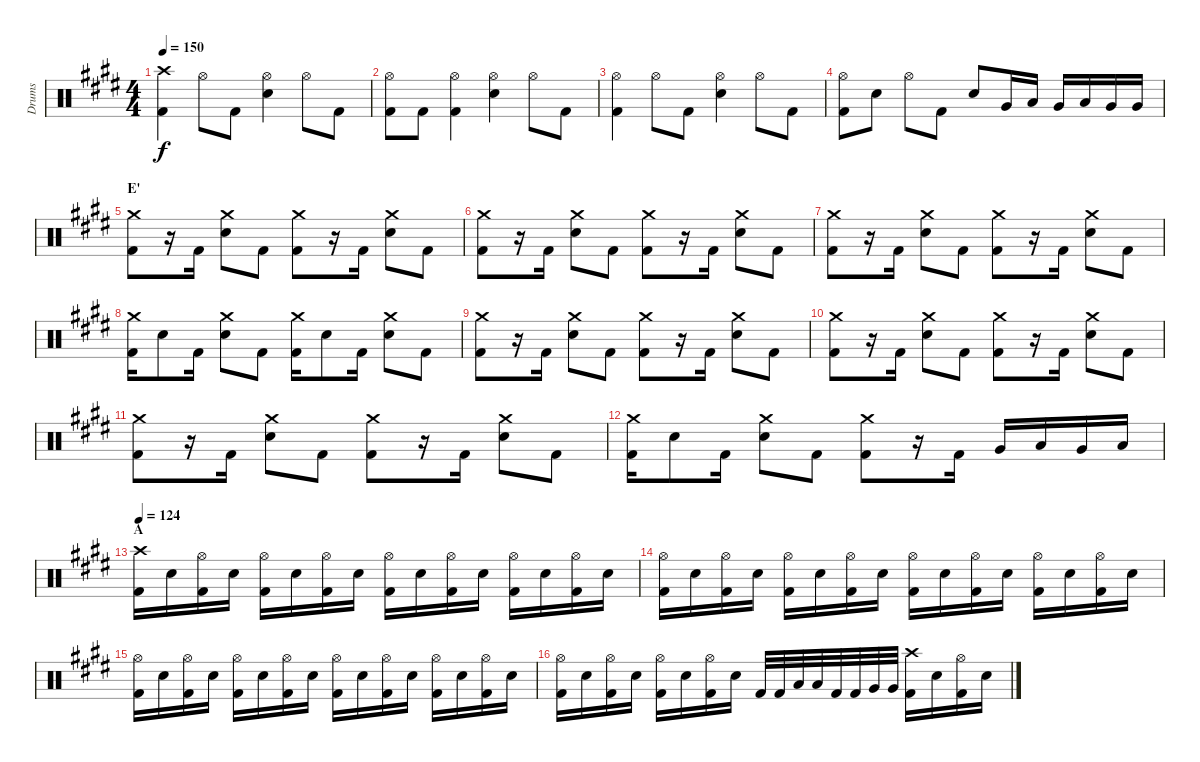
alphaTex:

\track ("Drums" "Drums") {instrument percussion}
\staff {score}
\articulation defaults
\ts (4 4)
\tempo 150
\clef neutral
\ks e
("Crash high (hit)" "Kick (hit) 2").4{dy f} "Hi-Hat (open)".8 "Kick (hit) 2".8 ("Hi-Hat (open)" "Electric Snare (hit)").4 "Hi-Hat (open)".8 "Kick (hit) 2".8 |
("Hi-Hat (open)" "Kick (hit) 2").8 "Kick (hit) 2".8 ("Hi-Hat (open)" "Kick (hit) 2").4 ("Hi-Hat (open)" "Electric Snare (hit)").4 "Hi-Hat (open)".8 "Kick (hit) 2".8 |
("Hi-Hat (open)" "Kick (hit) 2").4 "Hi-Hat (open)".8 "Kick (hit) 2".8 ("Hi-Hat (open)" "Electric Snare (hit)").4 "Hi-Hat (open)".8 "Kick (hit) 2".8 |
("Hi-Hat (open)" "Kick (hit) 2").8 "Electric Snare (hit)".8 "Hi-Hat (open)".8 "Kick (hit) 2".8 "Electric Snare (hit)".8 "Very Low Tom (hit)".16 "Low Tom (hit)".16 "Very Low Tom (hit)".16 "Low Tom (hit)".16 "Very Low Tom (hit)".16 "Very Low Tom (hit)".16 |
\section ("" "E'")
("Crash medium (hit)" "Kick (hit) 2").8 r.16 "Kick (hit) 2".16 ("Crash medium (hit)" "Electric Snare (hit)").8 "Kick (hit) 2".8 ("Crash medium (hit)" "Kick (hit) 2").8 r.16 "Kick (hit) 2".16 ("Crash medium (hit)" "Electric Snare (hit)").8 "Kick (hit) 2".8 |
("Crash medium (hit)" "Kick (hit) 2").8 r.16 "Kick (hit) 2".16 ("Crash medium (hit)" "Electric Snare (hit)").8 "Kick (hit) 2".8 ("Crash medium (hit)" "Kick (hit) 2").8 r.16 "Kick (hit) 2".16 ("Crash medium (hit)" "Electric Snare (hit)").8 "Kick (hit) 2".8 |
("Crash medium (hit)" "Kick (hit) 2").8 r.16 "Kick (hit) 2".16 ("Crash medium (hit)" "Electric Snare (hit)").8 "Kick (hit) 2".8 ("Crash medium (hit)" "Kick (hit) 2").8 r.16 "Kick (hit) 2".16 ("Crash medium (hit)" "Electric Snare (hit)").8 "Kick (hit) 2".8 |
("Crash medium (hit)" "Kick (hit) 2").16 "Electric Snare (hit)".8 "Kick (hit) 2".16 ("Crash medium (hit)" "Electric Snare (hit)").8 "Kick (hit) 2".8 ("Crash medium (hit)" "Kick (hit) 2").16 "Electric Snare (hit)".8 "Kick (hit) 2".16 ("Crash medium (hit)" "Electric Snare (hit)").8 "Kick (hit) 2".8 |
("Crash medium (hit)" "Kick (hit) 2").8 r.16 "Kick (hit) 2".16 ("Crash medium (hit)" "Electric Snare (hit)").8 "Kick (hit) 2".8 ("Crash medium (hit)" "Kick (hit) 2").8 r.16 "Kick (hit) 2".16 ("Crash medium (hit)" "Electric Snare (hit)").8 "Kick (hit) 2".8 |
("Crash medium (hit)" "Kick (hit) 2").8 r.16 "Kick (hit) 2".16 ("Crash medium (hit)" "Electric Snare (hit)").8 "Kick (hit) 2".8 ("Crash medium (hit)" "Kick (hit) 2").8 r.16 "Kick (hit) 2".16 ("Crash medium (hit)" "Electric Snare (hit)").8 "Kick (hit) 2".8 |
("Crash medium (hit)" "Kick (hit) 2").8 r.16 "Kick (hit) 2".16 ("Crash medium (hit)" "Electric Snare (hit)").8 "Kick (hit) 2".8 ("Crash medium (hit)" "Kick (hit) 2").8 r.16 "Kick (hit) 2".16 ("Crash medium (hit)" "Electric Snare (hit)").8 "Kick (hit) 2".8 |
("Crash medium (hit)" "Kick (hit) 2").16 "Electric Snare (hit)".8 "Kick (hit) 2".16 ("Crash medium (hit)" "Electric Snare (hit)").8 "Kick (hit) 2".8 ("Crash medium (hit)" "Kick (hit) 2").8 r.16 "Kick (hit) 2".16 "Very Low Tom (hit)".16 "Low Tom (hit)".16 "Very Low Tom (hit)".16 "Low Tom (hit)".16 |
\section ("" "A")
\tempo 124
("Crash high (hit)" "Kick (hit) 2").16 "Electric Snare (hit)".16 ("Hi-Hat (open)" "Kick (hit) 2").16 "Electric Snare (hit)".16 ("Hi-Hat (open)" "Kick (hit) 2").16 "Electric Snare (hit)".16 ("Hi-Hat (open)" "Kick (hit) 2").16 "Electric Snare (hit)".16 ("Hi-Hat (open)" "Kick (hit) 2").16 "Electric Snare (hit)".16 ("Hi-Hat (open)" "Kick (hit) 2").16 "Electric Snare (hit)".16 ("Hi-Hat (open)" "Kick (hit) 2").16 "Electric Snare (hit)".16 ("Hi-Hat (open)" "Kick (hit) 2").16 "Electric Snare (hit)".16 |
("Hi-Hat (open)" "Kick (hit) 2").16 "Electric Snare (hit)".16 ("Hi-Hat (open)" "Kick (hit) 2").16 "Electric Snare (hit)".16 ("Hi-Hat (open)" "Kick (hit) 2").16 "Electric Snare (hit)".16 ("Hi-Hat (open)" "Kick (hit) 2").16 "Electric Snare (hit)".16 ("Hi-Hat (open)" "Kick (hit) 2").16 "Electric Snare (hit)".16 ("Hi-Hat (open)" "Kick (hit) 2").16 "Electric Snare (hit)".16 ("Hi-Hat (open)" "Kick (hit) 2").16 "Electric Snare (hit)".16 ("Hi-Hat (open)" "Kick (hit) 2").16 "Electric Snare (hit)".16 |
("Hi-Hat (open)" "Kick (hit) 2").16 "Electric Snare (hit)".16 ("Hi-Hat (open)" "Kick (hit) 2").16 "Electric Snare (hit)".16 ("Hi-Hat (open)" "Kick (hit) 2").16 "Electric Snare (hit)".16 ("Hi-Hat (open)" "Kick (hit) 2").16 "Electric Snare (hit)".16 ("Hi-Hat (open)" "Kick (hit) 2").16 "Electric Snare (hit)".16 ("Hi-Hat (open)" "Kick (hit) 2").16 "Electric Snare (hit)".16 ("Hi-Hat (open)" "Kick (hit) 2").16 "Electric Snare (hit)".16 ("Hi-Hat (open)" "Kick (hit) 2").16 "Electric Snare (hit)".16 |
("Hi-Hat (open)" "Kick (hit) 2").16 "Electric Snare (hit)".16 ("Hi-Hat (open)" "Kick (hit) 2").16 "Electric Snare (hit)".16 ("Hi-Hat (open)" "Kick (hit) 2").16 "Electric Snare (hit)".16 ("Hi-Hat (open)" "Kick (hit) 2").16 "Electric Snare (hit)".16 "Kick (hit) 2".32 "Kick (hit) 2".32 "Low Tom (hit)".32 "Low Tom (hit)".32 "Kick (hit) 2".32 "Kick (hit) 2".32 "Very Low Tom (hit)".32 "Very Low Tom (hit)".32 ("Crash high (hit)" "Kick (hit) 2").16 "Electric Snare (hit)".16 ("Hi-Hat (open)" "Kick (hit) 2").16 "Electric Snare (hit)".16
